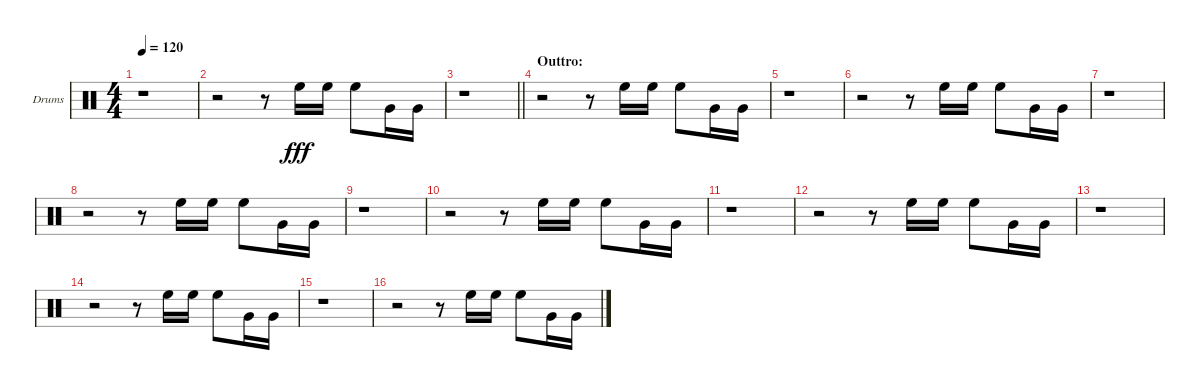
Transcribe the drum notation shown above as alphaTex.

\bracketExtendMode groupsimilarinstruments
\firstSystemTrackNameOrientation horizontal
\otherSystemsTrackNameOrientation horizontal
\track ("Drumkit" "Drums") {instrument percussion}
\staff {score}
\articulation defaults
\ts (4 4)
\tempo 120
\clef neutral
\ks c
r.1{dy fff} |
r.2 r.8 "High Floor Tom (hit)".16 "High Floor Tom (hit)".16 "High Floor Tom (hit)".8 "Very Low Tom (hit)".16 "Very Low Tom (hit)".16 |
\barLineRight lightlight
r.1 |
\section ("" "Outtro:")
r.2 r.8 "High Floor Tom (hit)".16 "High Floor Tom (hit)".16 "High Floor Tom (hit)".8 "Very Low Tom (hit)".16 "Very Low Tom (hit)".16 |
r.1 |
r.2 r.8 "High Floor Tom (hit)".16 "High Floor Tom (hit)".16 "High Floor Tom (hit)".8 "Very Low Tom (hit)".16 "Very Low Tom (hit)".16 |
r.1 |
r.2 r.8 "High Floor Tom (hit)".16 "High Floor Tom (hit)".16 "High Floor Tom (hit)".8 "Very Low Tom (hit)".16 "Very Low Tom (hit)".16 |
r.1 |
r.2 r.8 "High Floor Tom (hit)".16 "High Floor Tom (hit)".16 "High Floor Tom (hit)".8 "Very Low Tom (hit)".16 "Very Low Tom (hit)".16 |
r.1 |
r.2 r.8 "High Floor Tom (hit)".16 "High Floor Tom (hit)".16 "High Floor Tom (hit)".8 "Very Low Tom (hit)".16 "Very Low Tom (hit)".16 |
r.1 |
r.2 r.8 "High Floor Tom (hit)".16 "High Floor Tom (hit)".16 "High Floor Tom (hit)".8 "Very Low Tom (hit)".16 "Very Low Tom (hit)".16 |
r.1 |
r.2 r.8 "High Floor Tom (hit)".16 "High Floor Tom (hit)".16 "High Floor Tom (hit)".8 "Very Low Tom (hit)".16 "Very Low Tom (hit)".16
